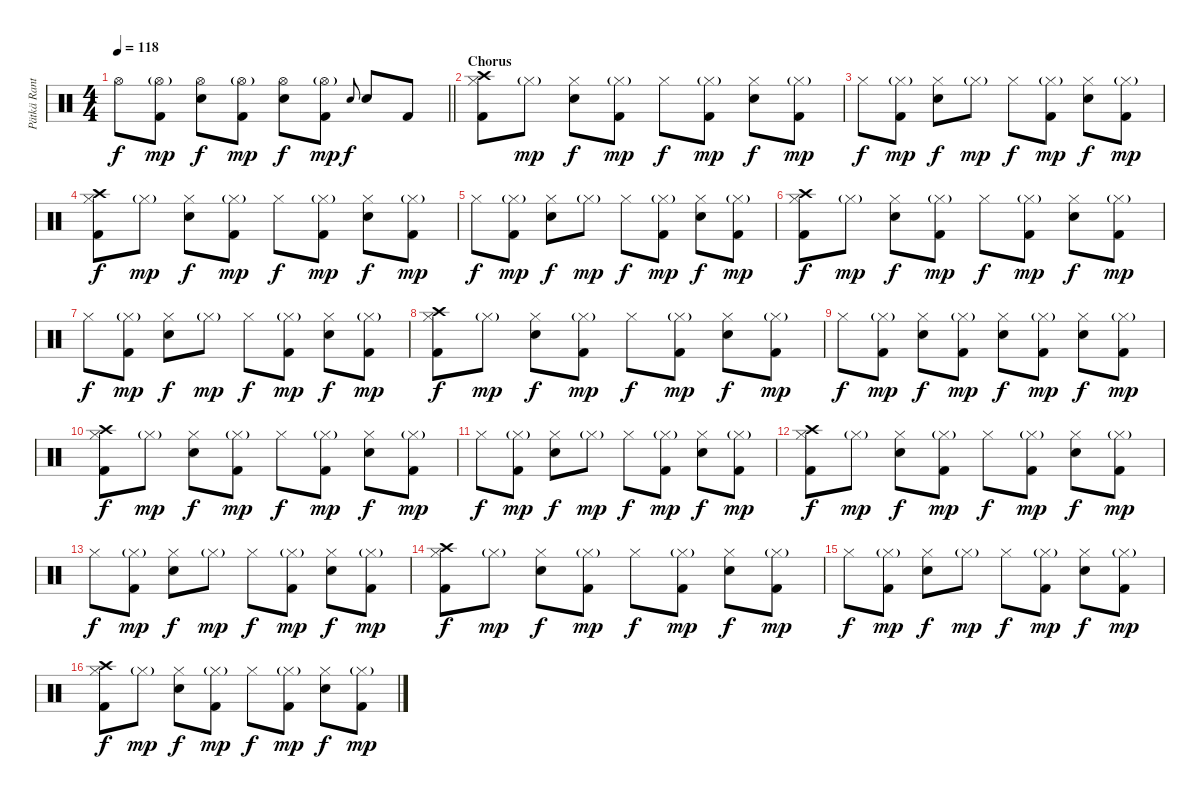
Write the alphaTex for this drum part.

\track ("Pätkä Rantala (Drums)" "Pätkä Rant") {instrument percussion}
\staff {score}
\articulation defaults
\ts (4 4)
\tempo 118
\clef neutral
\barLineRight lightlight
\ks c "Hi-Hat (open)".8{dy f}
("Hi-Hat (open)"{g} "Kick (hit) 2").8{dy mp} ("Hi-Hat (open)" "Snare (hit) 2").8{dy f} ("Hi-Hat (open)"{g} "Kick (hit) 2").8{dy mp} ("Hi-Hat (open)" "Snare (hit) 2").8{dy f} ("Hi-Hat (open)"{g} "Kick (hit) 2").8{dy mp} "Snare (hit) 2".8{gr onbeat dy f} "Snare (hit) 2".8 "Kick (hit) 2".8 |
\section ("" "Chorus")
("Crash high (hit)" "Hi-Hat (closed)" "Kick (hit) 2").8 "Hi-Hat (closed)"{g}.8{dy mp} ("Hi-Hat (closed)" "Snare (hit) 2").8{dy f} ("Hi-Hat (closed)"{g} "Kick (hit) 2").8{dy mp} "Hi-Hat (closed)".8{dy f} ("Hi-Hat (closed)"{g} "Kick (hit) 2").8{dy mp} ("Hi-Hat (closed)" "Snare (hit) 2").8{dy f} ("Hi-Hat (closed)"{g} "Kick (hit) 2").8{dy mp} |
"Hi-Hat (closed)".8{dy f} ("Hi-Hat (closed)"{g} "Kick (hit) 2").8{dy mp} ("Hi-Hat (closed)" "Snare (hit) 2").8{dy f} "Hi-Hat (closed)"{g}.8{dy mp} "Hi-Hat (closed)".8{dy f} ("Hi-Hat (closed)"{g} "Kick (hit) 2").8{dy mp} ("Hi-Hat (closed)" "Snare (hit) 2").8{dy f} ("Hi-Hat (closed)"{g} "Kick (hit) 2").8{dy mp} |
("Crash high (hit)" "Hi-Hat (closed)" "Kick (hit) 2").8{dy f} "Hi-Hat (closed)"{g}.8{dy mp} ("Hi-Hat (closed)" "Snare (hit) 2").8{dy f} ("Hi-Hat (closed)"{g} "Kick (hit) 2").8{dy mp} "Hi-Hat (closed)".8{dy f} ("Hi-Hat (closed)"{g} "Kick (hit) 2").8{dy mp} ("Hi-Hat (closed)" "Snare (hit) 2").8{dy f} ("Hi-Hat (closed)"{g} "Kick (hit) 2").8{dy mp} |
"Hi-Hat (closed)".8{dy f} ("Hi-Hat (closed)"{g} "Kick (hit) 2").8{dy mp} ("Hi-Hat (closed)" "Snare (hit) 2").8{dy f} "Hi-Hat (closed)"{g}.8{dy mp} "Hi-Hat (closed)".8{dy f} ("Hi-Hat (closed)"{g} "Kick (hit) 2").8{dy mp} ("Hi-Hat (closed)" "Snare (hit) 2").8{dy f} ("Hi-Hat (closed)"{g} "Kick (hit) 2").8{dy mp} |
("Crash high (hit)" "Hi-Hat (closed)" "Kick (hit) 2").8{dy f} "Hi-Hat (closed)"{g}.8{dy mp} ("Hi-Hat (closed)" "Snare (hit) 2").8{dy f} ("Hi-Hat (closed)"{g} "Kick (hit) 2").8{dy mp} "Hi-Hat (closed)".8{dy f} ("Hi-Hat (closed)"{g} "Kick (hit) 2").8{dy mp} ("Hi-Hat (closed)" "Snare (hit) 2").8{dy f} ("Hi-Hat (closed)"{g} "Kick (hit) 2").8{dy mp} |
"Hi-Hat (closed)".8{dy f} ("Hi-Hat (closed)"{g} "Kick (hit) 2").8{dy mp} ("Hi-Hat (closed)" "Snare (hit) 2").8{dy f} "Hi-Hat (closed)"{g}.8{dy mp} "Hi-Hat (closed)".8{dy f} ("Hi-Hat (closed)"{g} "Kick (hit) 2").8{dy mp} ("Hi-Hat (closed)" "Snare (hit) 2").8{dy f} ("Hi-Hat (closed)"{g} "Kick (hit) 2").8{dy mp} |
("Crash high (hit)" "Hi-Hat (closed)" "Kick (hit) 2").8{dy f} "Hi-Hat (closed)"{g}.8{dy mp} ("Hi-Hat (closed)" "Snare (hit) 2").8{dy f} ("Hi-Hat (closed)"{g} "Kick (hit) 2").8{dy mp} "Hi-Hat (closed)".8{dy f} ("Hi-Hat (closed)"{g} "Kick (hit) 2").8{dy mp} ("Hi-Hat (closed)" "Snare (hit) 2").8{dy f} ("Hi-Hat (closed)"{g} "Kick (hit) 2").8{dy mp} |
"Hi-Hat (closed)".8{dy f} ("Hi-Hat (closed)"{g} "Kick (hit) 2").8{dy mp} ("Hi-Hat (closed)" "Snare (hit) 2").8{dy f} ("Hi-Hat (closed)"{g} "Kick (hit) 2").8{dy mp} ("Hi-Hat (closed)" "Snare (hit) 2").8{dy f} ("Hi-Hat (closed)"{g} "Kick (hit) 2").8{dy mp} ("Hi-Hat (closed)" "Snare (hit) 2").8{dy f} ("Hi-Hat (closed)"{g} "Kick (hit) 2").8{dy mp} |
("Crash high (hit)" "Hi-Hat (closed)" "Kick (hit) 2").8{dy f} "Hi-Hat (closed)"{g}.8{dy mp} ("Hi-Hat (closed)" "Snare (hit) 2").8{dy f} ("Hi-Hat (closed)"{g} "Kick (hit) 2").8{dy mp} "Hi-Hat (closed)".8{dy f} ("Hi-Hat (closed)"{g} "Kick (hit) 2").8{dy mp} ("Hi-Hat (closed)" "Snare (hit) 2").8{dy f} ("Hi-Hat (closed)"{g} "Kick (hit) 2").8{dy mp} |
"Hi-Hat (closed)".8{dy f} ("Hi-Hat (closed)"{g} "Kick (hit) 2").8{dy mp} ("Hi-Hat (closed)" "Snare (hit) 2").8{dy f} "Hi-Hat (closed)"{g}.8{dy mp} "Hi-Hat (closed)".8{dy f} ("Hi-Hat (closed)"{g} "Kick (hit) 2").8{dy mp} ("Hi-Hat (closed)" "Snare (hit) 2").8{dy f} ("Hi-Hat (closed)"{g} "Kick (hit) 2").8{dy mp} |
("Crash high (hit)" "Hi-Hat (closed)" "Kick (hit) 2").8{dy f} "Hi-Hat (closed)"{g}.8{dy mp} ("Hi-Hat (closed)" "Snare (hit) 2").8{dy f} ("Hi-Hat (closed)"{g} "Kick (hit) 2").8{dy mp} "Hi-Hat (closed)".8{dy f} ("Hi-Hat (closed)"{g} "Kick (hit) 2").8{dy mp} ("Hi-Hat (closed)" "Snare (hit) 2").8{dy f} ("Hi-Hat (closed)"{g} "Kick (hit) 2").8{dy mp} |
"Hi-Hat (closed)".8{dy f} ("Hi-Hat (closed)"{g} "Kick (hit) 2").8{dy mp} ("Hi-Hat (closed)" "Snare (hit) 2").8{dy f} "Hi-Hat (closed)"{g}.8{dy mp} "Hi-Hat (closed)".8{dy f} ("Hi-Hat (closed)"{g} "Kick (hit) 2").8{dy mp} ("Hi-Hat (closed)" "Snare (hit) 2").8{dy f} ("Hi-Hat (closed)"{g} "Kick (hit) 2").8{dy mp} |
("Crash high (hit)" "Hi-Hat (closed)" "Kick (hit) 2").8{dy f} "Hi-Hat (closed)"{g}.8{dy mp} ("Hi-Hat (closed)" "Snare (hit) 2").8{dy f} ("Hi-Hat (closed)"{g} "Kick (hit) 2").8{dy mp} "Hi-Hat (closed)".8{dy f} ("Hi-Hat (closed)"{g} "Kick (hit) 2").8{dy mp} ("Hi-Hat (closed)" "Snare (hit) 2").8{dy f} ("Hi-Hat (closed)"{g} "Kick (hit) 2").8{dy mp} |
"Hi-Hat (closed)".8{dy f} ("Hi-Hat (closed)"{g} "Kick (hit) 2").8{dy mp} ("Hi-Hat (closed)" "Snare (hit) 2").8{dy f} "Hi-Hat (closed)"{g}.8{dy mp} "Hi-Hat (closed)".8{dy f} ("Hi-Hat (closed)"{g} "Kick (hit) 2").8{dy mp} ("Hi-Hat (closed)" "Snare (hit) 2").8{dy f} ("Hi-Hat (closed)"{g} "Kick (hit) 2").8{dy mp} |
("Crash high (hit)" "Hi-Hat (closed)" "Kick (hit) 2").8{dy f} "Hi-Hat (closed)"{g}.8{dy mp} ("Hi-Hat (closed)" "Snare (hit) 2").8{dy f} ("Hi-Hat (closed)"{g} "Kick (hit) 2").8{dy mp} "Hi-Hat (closed)".8{dy f} ("Hi-Hat (closed)"{g} "Kick (hit) 2").8{dy mp} ("Hi-Hat (closed)" "Snare (hit) 2").8{dy f} ("Hi-Hat (closed)"{g} "Kick (hit) 2").8{dy mp}
